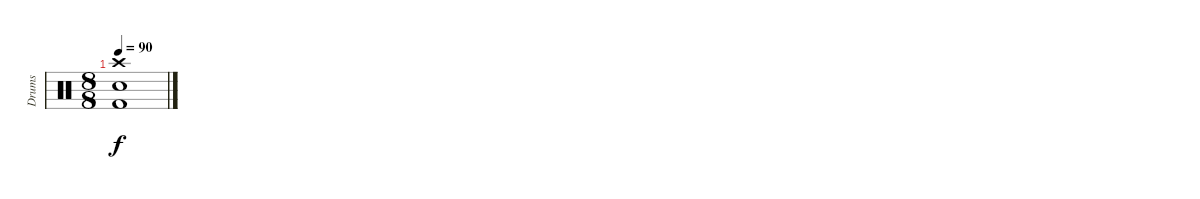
\track ("Drums" "Drums") {instrument percussion}
\staff {score}
\articulation defaults
\ts (8 8)
\tempo 90
\clef neutral
\ks c
("Electric Snare (hit)" "Kick (hit) 2" "Crash high (hit)").1{dy f}
